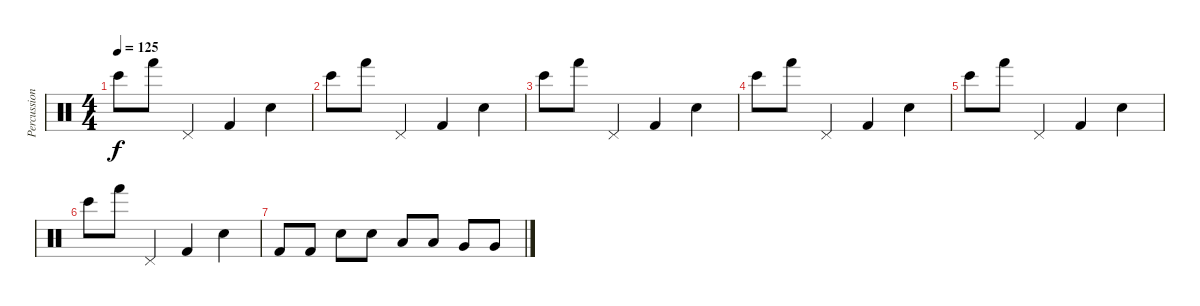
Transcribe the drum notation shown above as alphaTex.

\track ("Percussions" "Percussion") {instrument percussion}
\staff {score}
\articulation defaults
\ts (4 4)
\tempo 125
\clef neutral
\ks c "Bongo High (hit)".8{dy f} "Hand (hit)".8 "Pedal Hi-Hat (hit)".4 "Kick (hit) 2".4 "Electric Snare (hit)".4
|
"Bongo High (hit)".8 "Hand (hit)".8 "Pedal Hi-Hat (hit)".4 "Kick (hit) 2".4 "Electric Snare (hit)".4 |
"Bongo High (hit)".8 "Hand (hit)".8 "Pedal Hi-Hat (hit)".4 "Kick (hit) 2".4 "Electric Snare (hit)".4 |
"Bongo High (hit)".8 "Hand (hit)".8 "Pedal Hi-Hat (hit)".4 "Kick (hit) 2".4 "Electric Snare (hit)".4 |
"Bongo High (hit)".8 "Hand (hit)".8 "Pedal Hi-Hat (hit)".4 "Kick (hit) 2".4 "Electric Snare (hit)".4 |
"Bongo High (hit)".8 "Hand (hit)".8 "Pedal Hi-Hat (hit)".4 "Kick (hit) 2".4 "Electric Snare (hit)".4 |
"Kick (hit) 2".8 "Kick (hit) 2".8 "Electric Snare (hit)".8 "Electric Snare (hit)".8 "Low Tom (hit)".8 "Low Tom (hit)".8 "Very Low Tom (hit)".8 "Very Low Tom (hit)".8
